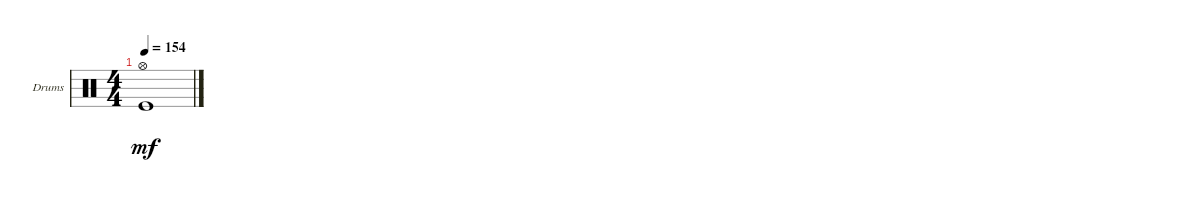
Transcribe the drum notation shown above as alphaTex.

\defaultSystemsLayout 4
\bracketExtendMode groupsimilarinstruments
\firstSystemTrackNameOrientation horizontal
\otherSystemsTrackNameOrientation horizontal
\track ("Drumkit" "Drums") {instrument percussion}
\staff {score}
\articulation defaults
\ts (4 4)
\tempo 154
\clef neutral
\ks c
("Kick (hit)" "Hi-Hat (open)").1{dy mf}
